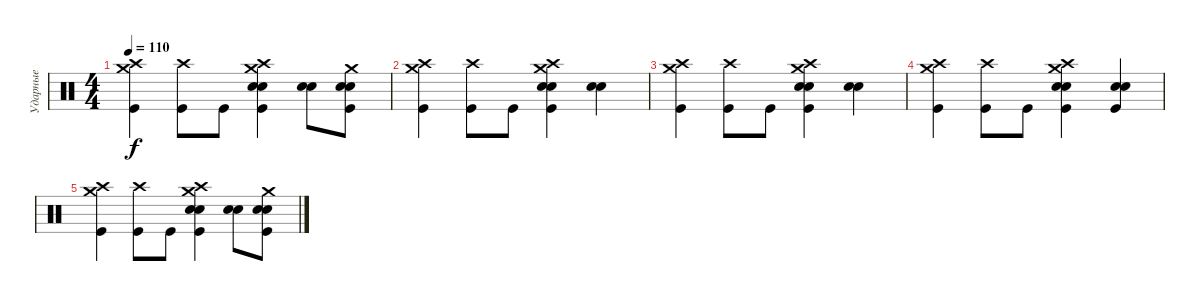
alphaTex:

\track ("Ударные" "Ударные") {instrument percussion}
\staff {score}
\articulation defaults
\ts (4 4)
\tempo 110
\clef neutral
\ks c
("Crash high (hit)" "Crash medium (hit)" "Kick (hit)").4{dy f} ("Crash high (hit)" "Kick (hit)").8 "Kick (hit)".8 ("Crash high (hit)" "Crash medium (hit)" "Snare (hit) 2" "Snare (hit) 2" "Kick (hit)").4 ("Snare (hit) 2" "Snare (hit) 2").8 ("Crash medium (hit)" "Snare (hit) 2" "Snare (hit) 2" "Kick (hit)").8 |
("Crash high (hit)" "Crash medium (hit)" "Kick (hit)").4 ("Crash high (hit)" "Kick (hit)").8 "Kick (hit)".8 ("Crash high (hit)" "Crash medium (hit)" "Snare (hit) 2" "Snare (hit) 2" "Kick (hit)").4 ("Snare (hit) 2" "Snare (hit) 2").4 |
("Crash high (hit)" "Crash medium (hit)" "Kick (hit)").4 ("Crash high (hit)" "Kick (hit)").8 "Kick (hit)".8 ("Crash high (hit)" "Crash medium (hit)" "Snare (hit) 2" "Snare (hit) 2" "Kick (hit)").4 ("Snare (hit) 2" "Snare (hit) 2").4 |
("Crash high (hit)" "Crash medium (hit)" "Kick (hit)").4 ("Crash high (hit)" "Kick (hit)").8 "Kick (hit)".8 ("Crash high (hit)" "Crash medium (hit)" "Snare (hit) 2" "Snare (hit) 2" "Kick (hit)").4 ("Snare (hit) 2" "Snare (hit) 2" "Kick (hit)").4 |
("Crash high (hit)" "Crash medium (hit)" "Kick (hit)").4 ("Crash high (hit)" "Kick (hit)").8 "Kick (hit)".8 ("Crash high (hit)" "Crash medium (hit)" "Snare (hit) 2" "Snare (hit) 2" "Kick (hit)").4 ("Snare (hit) 2" "Snare (hit) 2").8 ("Crash medium (hit)" "Snare (hit) 2" "Snare (hit) 2" "Kick (hit)").8
